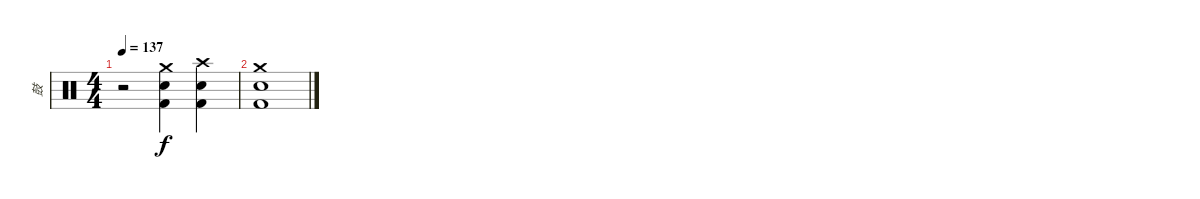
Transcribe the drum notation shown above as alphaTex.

\track ("鼓" "鼓") {instrument percussion}
\staff {score}
\articulation defaults
\ts (4 4)
\tempo 137
\clef neutral
\ks c
r.2{dy f} ("Crash medium (hit)" "Snare (hit) 2" "Kick (hit) 2").4 ("Crash high (hit)" "Snare (hit) 2" "Kick (hit) 2").4 |
("Crash medium (hit)" "Snare (hit) 2" "Kick (hit) 2").1
